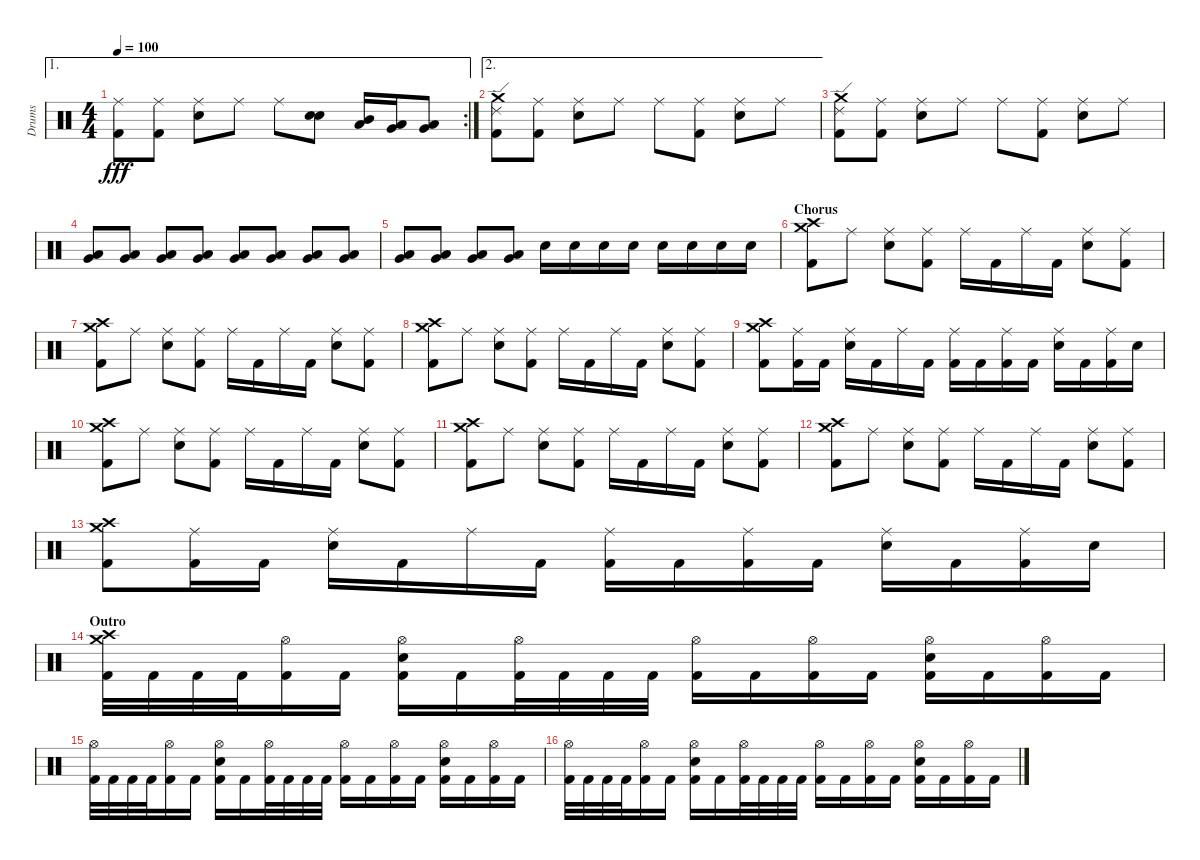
\track ("Drums" "Drums") {instrument percussion}
\staff {score}
\articulation defaults
\ae 1
\rc 2
\ts (4 4)
\tempo 100
\clef neutral
\ks c
("Ride (middle)" "Kick (hit) 2").8{dy fff} ("Ride (middle)" "Kick (hit) 2").8 ("Ride (middle)" "Electric Snare (hit)").8 "Ride (middle)".8 "Ride (middle)".8 ("Electric Snare (hit)" "Electric Snare (hit)").8 ("Mid Tom (hit)" "Low Tom (hit)").16 ("Low Tom (hit)" "Very Low Tom (hit)").16 ("Very Low Tom (hit)" "Low Floor Tom (hit)").8 |
\ae 2
("Crash medium (hit)" "Ride (edge) 2" "Kick (hit) 2").8 ("Ride (middle)" "Kick (hit) 2").8 ("Ride (middle)" "Electric Snare (hit)").8 "Ride (middle)".8 "Ride (middle)".8 ("Ride (middle)" "Kick (hit) 2").8 ("Ride (middle)" "Electric Snare (hit)").8 "Ride (middle)".8 |
("Crash medium (hit)" "Ride (edge) 2" "Kick (hit) 2").8 ("Ride (middle)" "Kick (hit) 2").8 ("Ride (middle)" "Electric Snare (hit)").8 "Ride (middle)".8 "Ride (middle)".8 ("Ride (middle)" "Kick (hit) 2").8 ("Ride (middle)" "Electric Snare (hit)").8 "Ride (middle)".8 |
("Low Tom (hit)" "Very Low Tom (hit)").8{volume 8} ("Low Tom (hit)" "Very Low Tom (hit)").8 ("Low Tom (hit)" "Very Low Tom (hit)").8{volume 16} ("Low Tom (hit)" "Very Low Tom (hit)").8 ("Low Tom (hit)" "Very Low Tom (hit)").8 ("Low Tom (hit)" "Very Low Tom (hit)").8 ("Low Tom (hit)" "Very Low Tom (hit)").8 ("Low Tom (hit)" "Very Low Tom (hit)").8 |
("Low Tom (hit)" "Very Low Tom (hit)").8 ("Low Tom (hit)" "Very Low Tom (hit)").8 ("Low Tom (hit)" "Very Low Tom (hit)").8 ("Low Tom (hit)" "Very Low Tom (hit)").8 "Electric Snare (hit)".16 "Electric Snare (hit)".16 "Electric Snare (hit)".16 "Electric Snare (hit)".16 "Electric Snare (hit)".16 "Electric Snare (hit)".16 "Electric Snare (hit)".16 "Electric Snare (hit)".16 |
\section ("" "Chorus")
("Crash high (hit)" "Crash medium (hit)" "Kick (hit) 2").8 "Ride (middle)".8 ("Ride (middle)" "Electric Snare (hit)").8 ("Ride (middle)" "Kick (hit) 2").8 "Ride (middle)".16 "Kick (hit) 2".16 "Ride (middle)".16 "Kick (hit) 2".16 ("Ride (middle)" "Electric Snare (hit)").8 ("Ride (middle)" "Kick (hit) 2").8 |
("Crash high (hit)" "Crash medium (hit)" "Kick (hit) 2").8 "Ride (middle)".8 ("Ride (middle)" "Electric Snare (hit)").8 ("Ride (middle)" "Kick (hit) 2").8 "Ride (middle)".16 "Kick (hit) 2".16 "Ride (middle)".16 "Kick (hit) 2".16 ("Ride (middle)" "Electric Snare (hit)").8 ("Ride (middle)" "Kick (hit) 2").8 |
("Crash high (hit)" "Crash medium (hit)" "Kick (hit) 2").8 "Ride (middle)".8 ("Ride (middle)" "Electric Snare (hit)").8 ("Ride (middle)" "Kick (hit) 2").8 "Ride (middle)".16 "Kick (hit) 2".16 "Ride (middle)".16 "Kick (hit) 2".16 ("Ride (middle)" "Electric Snare (hit)").8 ("Ride (middle)" "Kick (hit) 2").8 |
("Crash high (hit)" "Crash medium (hit)" "Kick (hit) 2").8 ("Ride (middle)" "Kick (hit) 2").16 "Kick (hit) 2".16 ("Ride (middle)" "Electric Snare (hit)").16 "Kick (hit) 2".16 "Ride (middle)".16 "Kick (hit) 2".16 ("Ride (middle)" "Kick (hit) 2").16 "Kick (hit) 2".16 ("Ride (middle)" "Kick (hit) 2").16 "Kick (hit) 2".16 ("Ride (middle)" "Electric Snare (hit)").16 "Kick (hit) 2".16 ("Ride (middle)" "Kick (hit) 2").16 "Electric Snare (hit)".16 |
("Crash high (hit)" "Crash medium (hit)" "Kick (hit) 2").8 "Ride (middle)".8 ("Ride (middle)" "Electric Snare (hit)").8 ("Ride (middle)" "Kick (hit) 2").8 "Ride (middle)".16 "Kick (hit) 2".16 "Ride (middle)".16 "Kick (hit) 2".16 ("Ride (middle)" "Electric Snare (hit)").8 ("Ride (middle)" "Kick (hit) 2").8 |
("Crash high (hit)" "Crash medium (hit)" "Kick (hit) 2").8 "Ride (middle)".8 ("Ride (middle)" "Electric Snare (hit)").8 ("Ride (middle)" "Kick (hit) 2").8 "Ride (middle)".16 "Kick (hit) 2".16 "Ride (middle)".16 "Kick (hit) 2".16 ("Ride (middle)" "Electric Snare (hit)").8 ("Ride (middle)" "Kick (hit) 2").8 |
("Crash high (hit)" "Crash medium (hit)" "Kick (hit) 2").8 "Ride (middle)".8 ("Ride (middle)" "Electric Snare (hit)").8 ("Ride (middle)" "Kick (hit) 2").8 "Ride (middle)".16 "Kick (hit) 2".16 "Ride (middle)".16 "Kick (hit) 2".16 ("Ride (middle)" "Electric Snare (hit)").8 ("Ride (middle)" "Kick (hit) 2").8 |
("Crash high (hit)" "Crash medium (hit)" "Kick (hit) 2").8 ("Ride (middle)" "Kick (hit) 2").16 "Kick (hit) 2".16 ("Ride (middle)" "Electric Snare (hit)").16 "Kick (hit) 2".16 "Ride (middle)".16 "Kick (hit) 2".16 ("Ride (middle)" "Kick (hit) 2").16 "Kick (hit) 2".16 ("Ride (middle)" "Kick (hit) 2").16 "Kick (hit) 2".16 ("Ride (middle)" "Electric Snare (hit)").16 "Kick (hit) 2".16 ("Ride (middle)" "Kick (hit) 2").16 "Electric Snare (hit)".16 |
\section ("" "Outro")
("Crash high (hit)" "Crash medium (hit)" "Kick (hit) 2").32 "Kick (hit) 2".32 "Kick (hit) 2".32 "Kick (hit) 2".32 ("Hi-Hat (open)" "Kick (hit) 2").16 "Kick (hit) 2".16 ("Hi-Hat (open)" "Electric Snare (hit)" "Kick (hit) 2").16 "Kick (hit) 2".16 ("Hi-Hat (open)" "Kick (hit) 2").32 "Kick (hit) 2".32 "Kick (hit) 2".32 "Kick (hit) 2".32 ("Hi-Hat (open)" "Kick (hit) 2").16 "Kick (hit) 2".16 ("Hi-Hat (open)" "Kick (hit) 2").16 "Kick (hit) 2".16 ("Hi-Hat (open)" "Electric Snare (hit)" "Kick (hit) 2").16 "Kick (hit) 2".16 ("Hi-Hat (open)" "Kick (hit) 2").16 "Kick (hit) 2".16 |
("Hi-Hat (open)" "Kick (hit) 2").32 "Kick (hit) 2".32 "Kick (hit) 2".32 "Kick (hit) 2".32 ("Hi-Hat (open)" "Kick (hit) 2").16 "Kick (hit) 2".16 ("Hi-Hat (open)" "Electric Snare (hit)" "Kick (hit) 2").16 "Kick (hit) 2".16 ("Hi-Hat (open)" "Kick (hit) 2").32 "Kick (hit) 2".32 "Kick (hit) 2".32 "Kick (hit) 2".32 ("Hi-Hat (open)" "Kick (hit) 2").16 "Kick (hit) 2".16 ("Hi-Hat (open)" "Kick (hit) 2").16 "Kick (hit) 2".16 ("Hi-Hat (open)" "Electric Snare (hit)" "Kick (hit) 2").16 "Kick (hit) 2".16 ("Hi-Hat (open)" "Kick (hit) 2").16 "Kick (hit) 2".16 |
("Hi-Hat (open)" "Kick (hit) 2").32 "Kick (hit) 2".32 "Kick (hit) 2".32 "Kick (hit) 2".32 ("Hi-Hat (open)" "Kick (hit) 2").16 "Kick (hit) 2".16 ("Hi-Hat (open)" "Electric Snare (hit)" "Kick (hit) 2").16 "Kick (hit) 2".16 ("Hi-Hat (open)" "Kick (hit) 2").32 "Kick (hit) 2".32 "Kick (hit) 2".32 "Kick (hit) 2".32 ("Hi-Hat (open)" "Kick (hit) 2").16 "Kick (hit) 2".16 ("Hi-Hat (open)" "Kick (hit) 2").16 "Kick (hit) 2".16 ("Hi-Hat (open)" "Electric Snare (hit)" "Kick (hit) 2").16 "Kick (hit) 2".16 ("Hi-Hat (open)" "Kick (hit) 2").16 "Kick (hit) 2".16
